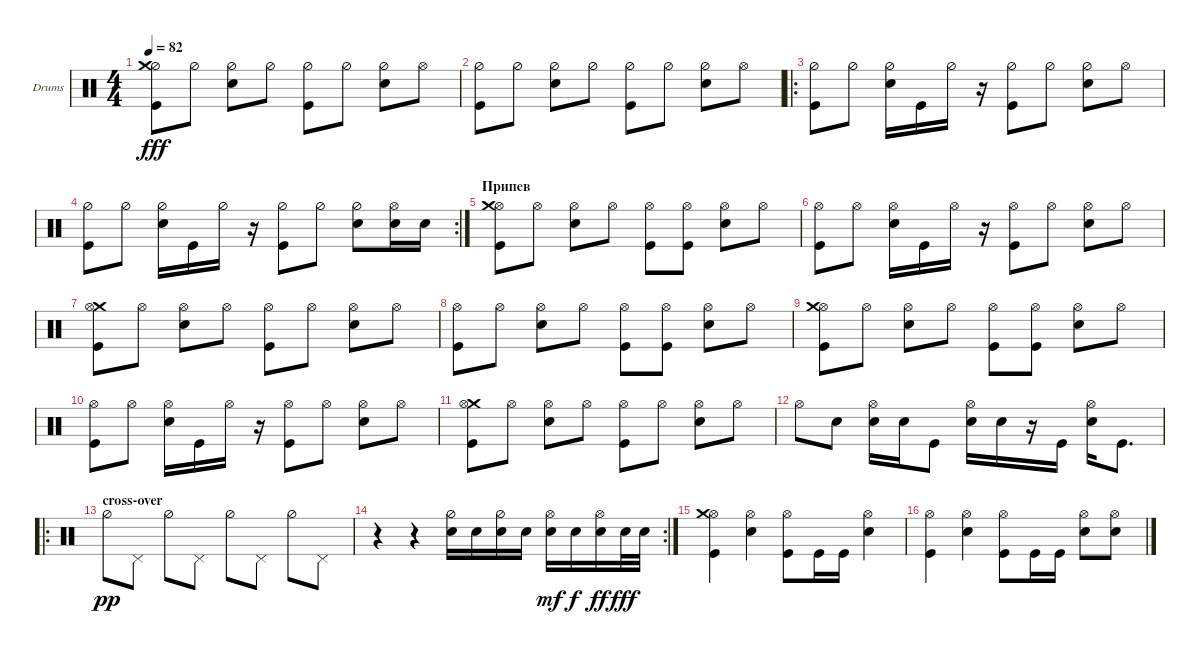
\defaultSystemsLayout 4
\bracketExtendMode groupsimilarinstruments
\firstSystemTrackNameOrientation horizontal
\otherSystemsTrackNameOrientation horizontal
\track ("Drumkit" "Drums") {instrument percussion}
\staff {score}
\articulation defaults
\ts (4 4)
\tempo 82
\clef neutral
\scale
0.311475
\ks c
("Kick (hit)" "Hi-Hat (half)" "Crash medium (hit)").8{dy fff} "Hi-Hat (half)".8 ("Snare (hit) 2" "Hi-Hat (half)").8 "Hi-Hat (half)".8 ("Kick (hit)" "Hi-Hat (half)").8 "Hi-Hat (half)".8 ("Snare (hit) 2" "Hi-Hat (half)").8 "Hi-Hat (open)".8 |
\scale
0.311475 ("Kick (hit)" "Hi-Hat (half)").8 "Hi-Hat (half)".8 ("Snare (hit) 2" "Hi-Hat (half)").8 "Hi-Hat (half)".8 ("Kick (hit)" "Hi-Hat (half)").8 "Hi-Hat (half)".8 ("Snare (hit) 2" "Hi-Hat (half)").8 "Hi-Hat (open)".8 |
\ro
\scale
0.377049 ("Kick (hit)" "Hi-Hat (half)").8 "Hi-Hat (half)".8 ("Snare (hit) 2" "Hi-Hat (half)").16 "Kick (hit)".16 "Hi-Hat (half)".16 r.16 ("Hi-Hat (half)" "Kick (hit)").8 "Hi-Hat (half)".8 ("Hi-Hat (half)" "Snare (hit) 2").8 "Hi-Hat (open)".8 |
\rc 2
\scale
0.355932 ("Kick (hit)" "Hi-Hat (half)").8 "Hi-Hat (half)".8 ("Snare (hit) 2" "Hi-Hat (half)").16 "Kick (hit)".16 "Hi-Hat (half)".16 r.16 ("Hi-Hat (half)" "Kick (hit)").8 "Hi-Hat (half)".8 ("Hi-Hat (half)" "Snare (hit) 2").8 ("Hi-Hat (open)" "Snare (hit) 2").16 "Snare (hit) 2".16 |
\section ("" "Припев")
\scale
0.322034 ("Kick (hit)" "Hi-Hat (open)" "Crash medium (hit)").8 "Hi-Hat (open)".8 ("Snare (hit) 2" "Hi-Hat (open)").8 "Hi-Hat (open)".8 ("Kick (hit)" "Hi-Hat (open)").8 ("Kick (hit)" "Hi-Hat (open)").8 ("Snare (hit) 2" "Hi-Hat (open)").8 "Hi-Hat (open)".8 |
\scale
0.322034 ("Kick (hit)" "Hi-Hat (open)").8 "Hi-Hat (open)".8 ("Snare (hit) 2" "Hi-Hat (open)").16 "Kick (hit)".16 "Hi-Hat (open)".16 r.16 ("Hi-Hat (open)" "Kick (hit)").8 "Hi-Hat (open)".8 ("Hi-Hat (open)" "Snare (hit) 2").8 "Hi-Hat (open)".8 |
\scale
0.333333 ("Kick (hit)" "Crash medium (hit)" "Hi-Hat (open)").8 "Hi-Hat (open)".8 ("Snare (hit) 2" "Hi-Hat (open)").8 "Hi-Hat (open)".8 ("Kick (hit)" "Hi-Hat (open)").8 "Hi-Hat (open)".8 ("Snare (hit) 2" "Hi-Hat (open)").8 "Hi-Hat (open)".8 |
\scale
0.333333 ("Kick (hit)" "Hi-Hat (open)").8 "Hi-Hat (open)".8 ("Snare (hit) 2" "Hi-Hat (open)").8 "Hi-Hat (open)".8 ("Kick (hit)" "Hi-Hat (open)").8 ("Kick (hit)" "Hi-Hat (open)").8 ("Snare (hit) 2" "Hi-Hat (open)").8 "Hi-Hat (open)".8 |
\scale
0.333333 ("Kick (hit)" "Hi-Hat (open)" "Crash medium (hit)").8 "Hi-Hat (open)".8 ("Snare (hit) 2" "Hi-Hat (open)").8 "Hi-Hat (open)".8 ("Kick (hit)" "Hi-Hat (open)").8 ("Kick (hit)" "Hi-Hat (open)").8 ("Snare (hit) 2" "Hi-Hat (open)").8 "Hi-Hat (open)".8 |
\scale
0.333333 ("Kick (hit)" "Hi-Hat (open)").8 "Hi-Hat (open)".8 ("Snare (hit) 2" "Hi-Hat (open)").16 "Kick (hit)".16 "Hi-Hat (open)".16 r.16 ("Hi-Hat (open)" "Kick (hit)").8 "Hi-Hat (open)".8 ("Hi-Hat (open)" "Snare (hit) 2").8 "Hi-Hat (open)".8 |
\scale
0.333333 ("Kick (hit)" "Crash medium (hit)" "Hi-Hat (open)").8 "Hi-Hat (open)".8 ("Snare (hit) 2" "Hi-Hat (open)").8 "Hi-Hat (open)".8 ("Kick (hit)" "Hi-Hat (open)").8 "Hi-Hat (open)".8 ("Snare (hit) 2" "Hi-Hat (open)").8 "Hi-Hat (open)".8 |
\scale
0.333333 "Hi-Hat (open)".8 "Snare (hit) 2".8 ("Snare (hit) 2" "Hi-Hat (open)").16 "Snare (hit) 2".16 "Kick (hit)".8 ("Snare (hit) 2" "Hi-Hat (open)").16 "Snare (hit) 2".16 r.16 "Kick (hit)".16 ("Snare (hit) 2" "Hi-Hat (open)").16 "Kick (hit)".8{d} |
\ro
\section ("" "cross-over")
\scale
0.365079 "Hi-Hat (half)".8{dy pp} "Pedal Hi-Hat (hit)".8 "Hi-Hat (half)".8 "Pedal Hi-Hat (hit)".8 "Hi-Hat (half)".8 "Pedal Hi-Hat (hit)".8 "Hi-Hat (half)".8 "Pedal Hi-Hat (hit)".8 |
\rc 2
\scale
0.333333 r.4 r.4 ("Snare (hit) 2" "Hi-Hat (half)").16 "Snare (hit) 2".16 ("Snare (hit) 2" "Hi-Hat (half)").16 "Snare (hit) 2".16 ("Snare (hit) 2" "Hi-Hat (open)").16{dy mf} "Snare (hit) 2".16{dy f} ("Snare (hit) 2" "Hi-Hat (open)").16{dy ff} "Snare (hit) 2".32{dy fff} "Snare (hit) 2".32 |
\scale
0.301587 ("Kick (hit)" "Hi-Hat (open)" "Crash medium (hit)").4 ("Snare (hit) 2" "Hi-Hat (open)").4 ("Kick (hit)" "Hi-Hat (open)").8 "Kick (hit)".16 "Kick (hit)".16 ("Hi-Hat (open)" "Snare (hit) 2").4 |
\scale
0.333333 ("Kick (hit)" "Hi-Hat (open)").4 ("Snare (hit) 2" "Hi-Hat (open)").4 ("Kick (hit)" "Hi-Hat (open)").8 "Kick (hit)".16 "Kick (hit)".16 ("Hi-Hat (open)" "Snare (hit) 2").8 ("Snare (hit) 2" "Hi-Hat (open)").8
